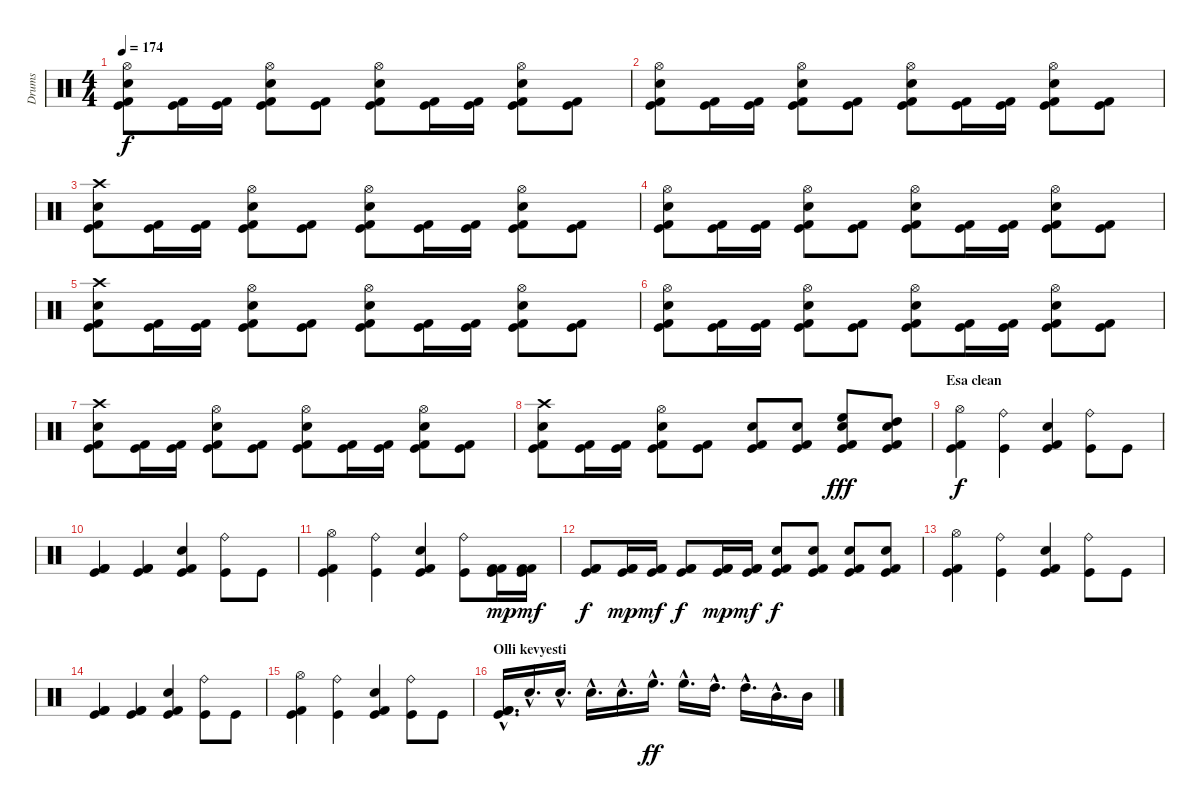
\track ("Drums" "Drums") {instrument percussion}
\staff {score}
\articulation defaults
\ts (4 4)
\tempo 174
\clef neutral
\ks c
("Kick (hit)" "Kick (hit) 2" "Electric Snare (hit)" "Hi-Hat (open)").8{dy f} ("Kick (hit)" "Kick (hit) 2").16 ("Kick (hit)" "Kick (hit) 2").16 ("Kick (hit)" "Kick (hit) 2" "Electric Snare (hit)" "Hi-Hat (open)").8 ("Kick (hit)" "Kick (hit) 2").8 ("Kick (hit)" "Kick (hit) 2" "Electric Snare (hit)" "Hi-Hat (open)").8 ("Kick (hit)" "Kick (hit) 2").16 ("Kick (hit)" "Kick (hit) 2").16 ("Kick (hit)" "Kick (hit) 2" "Electric Snare (hit)" "Hi-Hat (open)").8 ("Kick (hit)" "Kick (hit) 2").8 |
("Kick (hit)" "Kick (hit) 2" "Electric Snare (hit)" "Hi-Hat (open)").8 ("Kick (hit)" "Kick (hit) 2").16 ("Kick (hit)" "Kick (hit) 2").16 ("Kick (hit)" "Kick (hit) 2" "Electric Snare (hit)" "Hi-Hat (open)").8 ("Kick (hit)" "Kick (hit) 2").8 ("Kick (hit)" "Kick (hit) 2" "Electric Snare (hit)" "Hi-Hat (open)").8 ("Kick (hit)" "Kick (hit) 2").16 ("Kick (hit)" "Kick (hit) 2").16 ("Kick (hit)" "Kick (hit) 2" "Electric Snare (hit)" "Hi-Hat (open)").8 ("Kick (hit)" "Kick (hit) 2").8 |
("Kick (hit)" "Kick (hit) 2" "Electric Snare (hit)" "Crash high (hit)").8 ("Kick (hit)" "Kick (hit) 2").16 ("Kick (hit)" "Kick (hit) 2").16 ("Kick (hit)" "Kick (hit) 2" "Electric Snare (hit)" "Hi-Hat (open)").8 ("Kick (hit)" "Kick (hit) 2").8 ("Kick (hit)" "Kick (hit) 2" "Electric Snare (hit)" "Hi-Hat (open)").8 ("Kick (hit)" "Kick (hit) 2").16 ("Kick (hit)" "Kick (hit) 2").16 ("Kick (hit)" "Kick (hit) 2" "Electric Snare (hit)" "Hi-Hat (open)").8 ("Kick (hit)" "Kick (hit) 2").8 |
("Kick (hit)" "Kick (hit) 2" "Electric Snare (hit)" "Hi-Hat (open)").8 ("Kick (hit)" "Kick (hit) 2").16 ("Kick (hit)" "Kick (hit) 2").16 ("Kick (hit)" "Kick (hit) 2" "Electric Snare (hit)" "Hi-Hat (open)").8 ("Kick (hit)" "Kick (hit) 2").8 ("Kick (hit)" "Kick (hit) 2" "Electric Snare (hit)" "Hi-Hat (open)").8 ("Kick (hit)" "Kick (hit) 2").16 ("Kick (hit)" "Kick (hit) 2").16 ("Kick (hit)" "Kick (hit) 2" "Electric Snare (hit)" "Hi-Hat (open)").8 ("Kick (hit)" "Kick (hit) 2").8 |
("Kick (hit)" "Kick (hit) 2" "Electric Snare (hit)" "Crash high (hit)").8 ("Kick (hit)" "Kick (hit) 2").16 ("Kick (hit)" "Kick (hit) 2").16 ("Kick (hit)" "Kick (hit) 2" "Electric Snare (hit)" "Hi-Hat (open)").8 ("Kick (hit)" "Kick (hit) 2").8 ("Kick (hit)" "Kick (hit) 2" "Electric Snare (hit)" "Hi-Hat (open)").8 ("Kick (hit)" "Kick (hit) 2").16 ("Kick (hit)" "Kick (hit) 2").16 ("Kick (hit)" "Kick (hit) 2" "Electric Snare (hit)" "Hi-Hat (open)").8 ("Kick (hit)" "Kick (hit) 2").8 |
("Kick (hit)" "Kick (hit) 2" "Electric Snare (hit)" "Hi-Hat (open)").8 ("Kick (hit)" "Kick (hit) 2").16 ("Kick (hit)" "Kick (hit) 2").16 ("Kick (hit)" "Kick (hit) 2" "Electric Snare (hit)" "Hi-Hat (open)").8 ("Kick (hit)" "Kick (hit) 2").8 ("Kick (hit)" "Kick (hit) 2" "Electric Snare (hit)" "Hi-Hat (open)").8 ("Kick (hit)" "Kick (hit) 2").16 ("Kick (hit)" "Kick (hit) 2").16 ("Kick (hit)" "Kick (hit) 2" "Electric Snare (hit)" "Hi-Hat (open)").8 ("Kick (hit)" "Kick (hit) 2").8 |
("Kick (hit)" "Kick (hit) 2" "Electric Snare (hit)" "Crash high (hit)").8 ("Kick (hit)" "Kick (hit) 2").16 ("Kick (hit)" "Kick (hit) 2").16 ("Kick (hit)" "Kick (hit) 2" "Electric Snare (hit)" "Hi-Hat (open)").8 ("Kick (hit)" "Kick (hit) 2").8 ("Kick (hit)" "Kick (hit) 2" "Electric Snare (hit)" "Hi-Hat (open)").8 ("Kick (hit)" "Kick (hit) 2").16 ("Kick (hit)" "Kick (hit) 2").16 ("Kick (hit)" "Kick (hit) 2" "Electric Snare (hit)" "Hi-Hat (open)").8 ("Kick (hit)" "Kick (hit) 2").8 |
("Kick (hit)" "Kick (hit) 2" "Electric Snare (hit)" "Crash high (hit)").8 ("Kick (hit)" "Kick (hit) 2").16 ("Kick (hit)" "Kick (hit) 2").16 ("Kick (hit)" "Kick (hit) 2" "Electric Snare (hit)" "Hi-Hat (open)").8 ("Kick (hit)" "Kick (hit) 2").8 ("Kick (hit)" "Kick (hit) 2" "Electric Snare (hit)").8 ("Kick (hit)" "Kick (hit) 2" "Electric Snare (hit)").8 ("Kick (hit)" "Kick (hit) 2" "Electric Snare (hit)" "High Floor Tom (hit)").8{dy fff} ("Kick (hit)" "Kick (hit) 2" "Electric Snare (hit)" "High Tom (hit)").8 |
\section ("" "Esa clean")
("Kick (hit)" "Kick (hit) 2" "Hi-Hat (open)").4{dy f} ("Kick (hit)" "Ride (bell)").4 ("Kick (hit)" "Kick (hit) 2" "Electric Snare (hit)").4 ("Kick (hit)" "Ride (bell)").8 "Kick (hit)".8 |
("Kick (hit)" "Kick (hit) 2" "Kick (hit) 2").4 ("Kick (hit)" "Kick (hit) 2" "Kick (hit) 2").4 ("Kick (hit)" "Kick (hit) 2" "Electric Snare (hit)").4 ("Kick (hit)" "Ride (bell)").8 "Kick (hit)".8 |
("Kick (hit)" "Kick (hit) 2" "Hi-Hat (open)").4 ("Kick (hit)" "Ride (bell)").4 ("Kick (hit)" "Kick (hit) 2" "Electric Snare (hit)").4 ("Kick (hit)" "Ride (bell)").8 ("Kick (hit)" "Kick (hit) 2" "Kick (hit) 2").16{dy mp} ("Kick (hit)" "Kick (hit) 2" "Kick (hit) 2").16{dy mf} |
("Kick (hit)" "Kick (hit) 2" "Kick (hit) 2").8{dy f} ("Kick (hit)" "Kick (hit) 2" "Kick (hit) 2").16{dy mp} ("Kick (hit)" "Kick (hit) 2" "Kick (hit) 2").16{dy mf} ("Kick (hit)" "Kick (hit) 2" "Kick (hit) 2").8{dy f} ("Kick (hit)" "Kick (hit) 2" "Kick (hit) 2").16{dy mp} ("Kick (hit)" "Kick (hit) 2" "Kick (hit) 2").16{dy mf} ("Kick (hit)" "Kick (hit) 2" "Electric Snare (hit)").8{dy f} ("Kick (hit)" "Kick (hit) 2" "Electric Snare (hit)").8 ("Kick (hit)" "Kick (hit) 2" "Electric Snare (hit)").8 ("Kick (hit)" "Kick (hit) 2" "Electric Snare (hit)").8 |
("Kick (hit)" "Kick (hit) 2" "Hi-Hat (open)").4 ("Kick (hit)" "Ride (bell)").4 ("Kick (hit)" "Kick (hit) 2" "Electric Snare (hit)").4 ("Kick (hit)" "Ride (bell)").8 "Kick (hit)".8 |
("Kick (hit)" "Kick (hit) 2" "Kick (hit) 2").4 ("Kick (hit)" "Kick (hit) 2" "Kick (hit) 2").4 ("Kick (hit)" "Kick (hit) 2" "Electric Snare (hit)").4 ("Kick (hit)" "Ride (bell)").8 "Kick (hit)".8 |
("Kick (hit)" "Kick (hit) 2" "Hi-Hat (open)").4 ("Kick (hit)" "Ride (bell)").4 ("Kick (hit)" "Kick (hit) 2" "Electric Snare (hit)").4 ("Kick (hit)" "Ride (bell)").8 "Kick (hit)".8 |
\section ("" "Olli kevyesti")
("Kick (hit)"{hac} "Kick (hit) 2"{hac} "Kick (hit) 2"{hac}).16{d} "Electric Snare (hit)"{hac}.16{d} "Electric Snare (hit)"{hac}.16{d} "Electric Snare (hit)"{hac}.16{d} "Electric Snare (hit)"{hac}.16{d} "High Floor Tom (hit)"{hac}.16{d dy ff} "High Floor Tom (hit)"{hac}.16{d} "High Tom (hit)"{hac}.16{d} "High Tom (hit)"{hac}.16{d} "Mid Tom (hit)"{hac}.16{d} "Mid Tom (hit)".16
